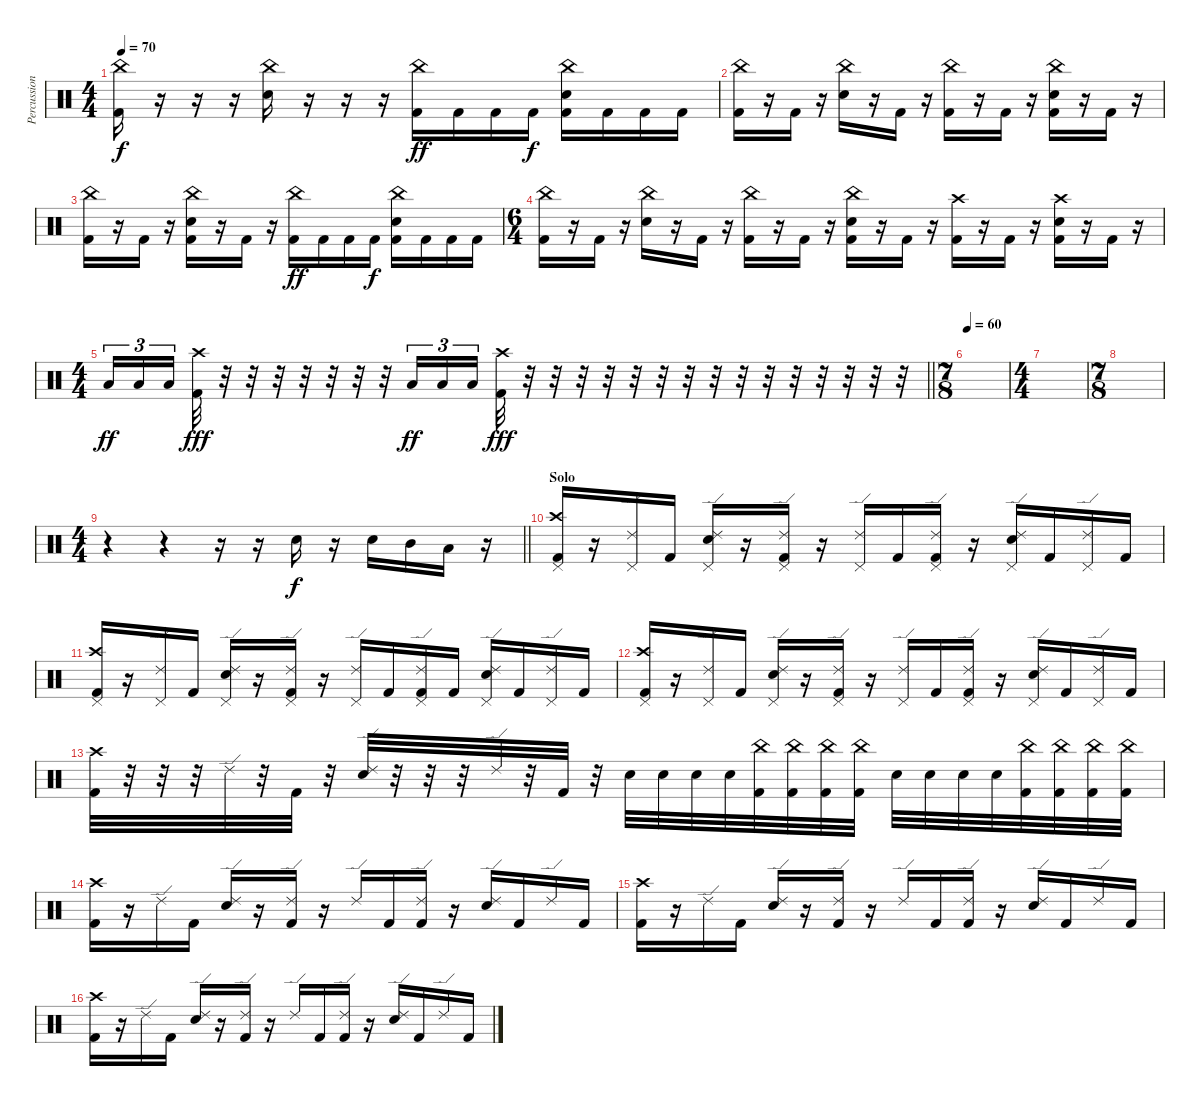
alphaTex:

\track ("Percussion" "Percussion") {instrument percussion}
\staff {score}
\articulation defaults
\ts (4 4)
\tempo 70
\clef neutral
\ks c
("China (hit)" "Kick (hit) 2").16{dy f} r.16 r.16 r.16 ("China (hit)" "Electric Snare (hit)").16 r.16 r.16 r.16 ("China (hit)" "Kick (hit) 2").16{dy ff} "Kick (hit) 2".16 "Kick (hit) 2".16 "Kick (hit) 2".16{dy f} ("China (hit)" "Electric Snare (hit)" "Kick (hit) 2").16 "Kick (hit) 2".16 "Kick (hit) 2".16 "Kick (hit) 2".16 |
("China (hit)" "Kick (hit) 2").16 r.16 "Kick (hit) 2".16 r.16 ("China (hit)" "Electric Snare (hit)").16 r.16 "Kick (hit) 2".16 r.16 ("China (hit)" "Kick (hit) 2").16 r.16 "Kick (hit) 2".16 r.16 ("China (hit)" "Electric Snare (hit)" "Kick (hit) 2").16 r.16 "Kick (hit) 2".16 r.16 |
("China (hit)" "Kick (hit) 2").16 r.16 "Kick (hit) 2".16 r.16 ("China (hit)" "Electric Snare (hit)" "Kick (hit) 2").16 r.16 "Kick (hit) 2".16 r.16 ("China (hit)" "Kick (hit) 2").16{dy ff} "Kick (hit) 2".16 "Kick (hit) 2".16 "Kick (hit) 2".16{dy f} ("China (hit)" "Electric Snare (hit)" "Kick (hit) 2").16 "Kick (hit) 2".16 "Kick (hit) 2".16 "Kick (hit) 2".16 |
\ts (6 4)
("China (hit)" "Kick (hit) 2").16 r.16 "Kick (hit) 2".16 r.16 ("China (hit)" "Electric Snare (hit)").16 r.16 "Kick (hit) 2".16 r.16 ("China (hit)" "Kick (hit) 2").16 r.16 "Kick (hit) 2".16 r.16 ("China (hit)" "Electric Snare (hit)" "Kick (hit) 2").16 r.16 "Kick (hit) 2".16 r.16 ("Crash high (hit)" "Kick (hit) 2").16 r.16 "Kick (hit) 2".16 r.16 ("Crash high (hit)" "Electric Snare (hit)" "Kick (hit) 2").16 r.16 "Kick (hit) 2".16 r.16 |
\ts (4 4)
\barLineRight lightlight "Low Floor Tom (hit)".16{tu (3 2) dy ff} "Low Floor Tom (hit)".16{tu (3 2)} "Low Floor Tom (hit)".16{tu (3 2) beam splitsecondary}
("Crash high (hit)" "Kick (hit) 2").32{dy fff} r.32 r.32 r.32 r.32 r.32 r.32 r.32 "Low Floor Tom (hit)".16{tu (3 2) dy ff} "Low Floor Tom (hit)".16{tu (3 2)} "Low Floor Tom (hit)".16{tu (3 2)} ("Crash high (hit)" "Kick (hit) 2").32{dy fff} r.32 r.32 r.32 r.32 r.32 r.32 r.32 r.32 r.32 r.32 r.32 r.32 r.32 r.32 r.32 |
\ts (7 8)
\section ("" "")
\tempo 60
|
\ts (4 4)
|
\ts (7 8)
|
\ts (4 4)
\barLineRight lightlight
r.4 r.4 r.16 r.16 "Electric Snare (hit)".16{dy f} r.16 "Electric Snare (hit)".16 "Mid Tom (hit)".16 "Low Tom (hit)".16 r.16 |
\section ("" "Solo")
("Crash high (hit)" "Pedal Hi-Hat (hit)" "Kick (hit) 2").16 r.16 ("Pedal Hi-Hat (hit)" "Ride (edge) 2").16 "Kick (hit) 2".16 ("Pedal Hi-Hat (hit)" "Ride (edge) 2" "Electric Snare (hit)").16 r.16 ("Pedal Hi-Hat (hit)" "Ride (edge) 2" "Kick (hit) 2").16 r.16 ("Ride (edge) 2" "Pedal Hi-Hat (hit)").16 "Kick (hit) 2".16 ("Kick (hit) 2" "Ride (edge) 2" "Pedal Hi-Hat (hit)").16 r.16 ("Pedal Hi-Hat (hit)" "Ride (edge) 2" "Electric Snare (hit)").16 "Kick (hit) 2".16 ("Pedal Hi-Hat (hit)" "Ride (edge) 2").16 "Kick (hit) 2".16 |
("Crash high (hit)" "Pedal Hi-Hat (hit)" "Kick (hit) 2").16 r.16 ("Pedal Hi-Hat (hit)" "Ride (edge) 2").16 "Kick (hit) 2".16 ("Pedal Hi-Hat (hit)" "Ride (edge) 2" "Electric Snare (hit)").16 r.16 ("Pedal Hi-Hat (hit)" "Ride (edge) 2" "Kick (hit) 2").16 r.16 ("Ride (edge) 2" "Pedal Hi-Hat (hit)").16 "Kick (hit) 2".16 ("Kick (hit) 2" "Ride (edge) 2" "Pedal Hi-Hat (hit)").16 "Kick (hit) 2".16 ("Pedal Hi-Hat (hit)" "Ride (edge) 2" "Electric Snare (hit)").16 "Kick (hit) 2".16 ("Pedal Hi-Hat (hit)" "Ride (edge) 2").16 "Kick (hit) 2".16 |
("Crash high (hit)" "Pedal Hi-Hat (hit)" "Kick (hit) 2").16 r.16 ("Pedal Hi-Hat (hit)" "Ride (edge) 2").16 "Kick (hit) 2".16 ("Pedal Hi-Hat (hit)" "Ride (edge) 2" "Electric Snare (hit)").16 r.16 ("Pedal Hi-Hat (hit)" "Ride (edge) 2" "Kick (hit) 2").16 r.16 ("Ride (edge) 2" "Pedal Hi-Hat (hit)").16 "Kick (hit) 2".16 ("Kick (hit) 2" "Ride (edge) 2" "Pedal Hi-Hat (hit)").16 r.16 ("Pedal Hi-Hat (hit)" "Ride (edge) 2" "Electric Snare (hit)").16 "Kick (hit) 2".16 ("Pedal Hi-Hat (hit)" "Ride (edge) 2").16 "Kick (hit) 2".16 |
("Crash high (hit)" "Kick (hit) 2").32 r.32 r.32 r.32 "Ride (edge) 2".32 r.32 "Kick (hit) 2".32 r.32 ("Ride (edge) 2" "Electric Snare (hit)").32 r.32 r.32 r.32 "Ride (edge) 2".32 r.32 "Kick (hit) 2".32 r.32 "Electric Snare (hit)".32 "Electric Snare (hit)".32 "Electric Snare (hit)".32 "Electric Snare (hit)".32 ("China (hit)" "Kick (hit) 2").32 ("China (hit)" "Kick (hit) 2").32 ("China (hit)" "Kick (hit) 2").32 ("China (hit)" "Kick (hit) 2").32 "Electric Snare (hit)".32 "Electric Snare (hit)".32 "Electric Snare (hit)".32 "Electric Snare (hit)".32 ("China (hit)" "Kick (hit) 2").32 ("China (hit)" "Kick (hit) 2").32 ("China (hit)" "Kick (hit) 2").32 ("China (hit)" "Kick (hit) 2").32 |
("Crash high (hit)" "Kick (hit) 2").16 r.16 "Ride (edge) 2".16 "Kick (hit) 2".16 ("Ride (edge) 2" "Electric Snare (hit)").16 r.16 ("Ride (edge) 2" "Kick (hit) 2").16 r.16 "Ride (edge) 2".16 "Kick (hit) 2".16 ("Ride (edge) 2" "Kick (hit) 2").16 r.16 ("Ride (edge) 2" "Electric Snare (hit)").16 "Kick (hit) 2".16 "Ride (edge) 2".16 "Kick (hit) 2".16 |
("Crash high (hit)" "Kick (hit) 2").16 r.16 "Ride (edge) 2".16 "Kick (hit) 2".16 ("Ride (edge) 2" "Electric Snare (hit)").16 r.16 ("Ride (edge) 2" "Kick (hit) 2").16 r.16 "Ride (edge) 2".16 "Kick (hit) 2".16 ("Ride (edge) 2" "Kick (hit) 2").16 r.16 ("Ride (edge) 2" "Electric Snare (hit)").16 "Kick (hit) 2".16 "Ride (edge) 2".16 "Kick (hit) 2".16 |
("Crash high (hit)" "Kick (hit) 2").16 r.16 "Ride (edge) 2".16 "Kick (hit) 2".16 ("Ride (edge) 2" "Electric Snare (hit)").16 r.16 ("Ride (edge) 2" "Kick (hit) 2").16 r.16 "Ride (edge) 2".16 "Kick (hit) 2".16 ("Ride (edge) 2" "Kick (hit) 2").16 r.16 ("Ride (edge) 2" "Electric Snare (hit)").16 "Kick (hit) 2".16 "Ride (edge) 2".16 "Kick (hit) 2".16
